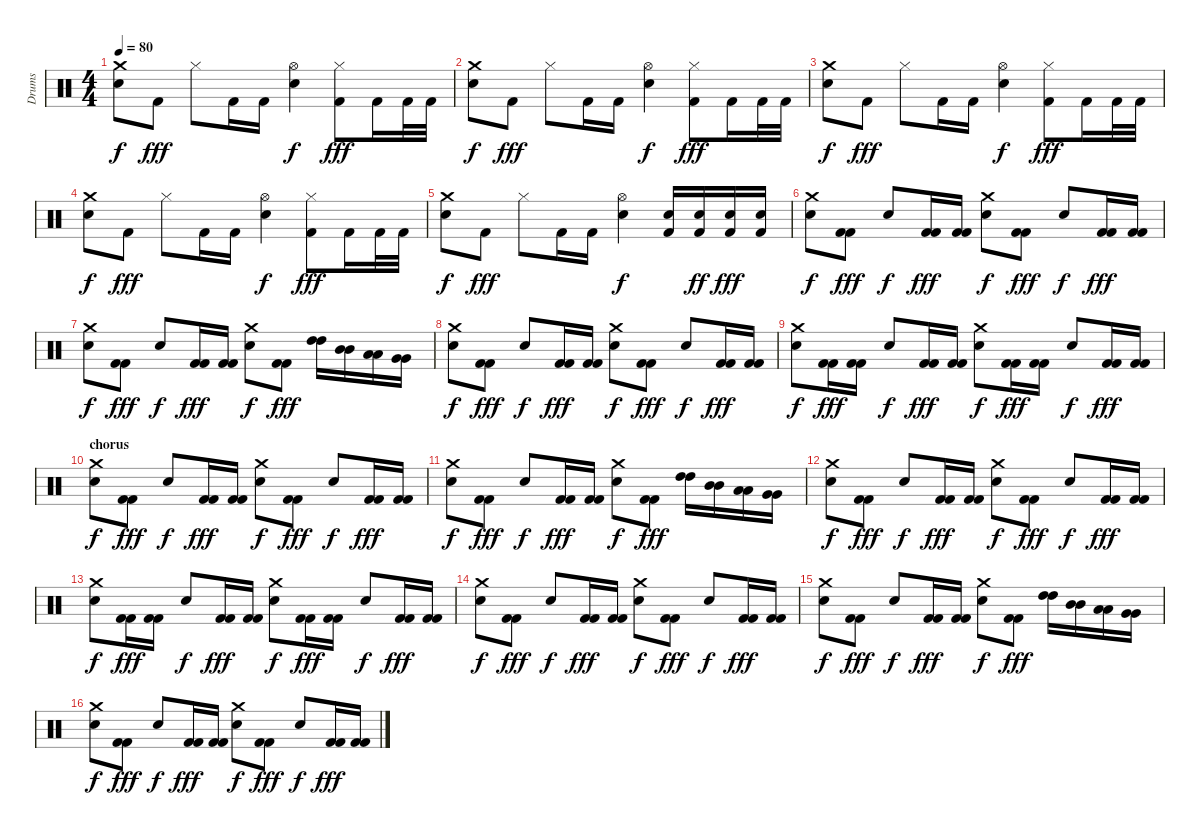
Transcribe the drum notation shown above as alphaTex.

\track ("Drums" "Drums") {instrument percussion}
\staff {score}
\articulation defaults
\ts (4 4)
\tempo 80
\clef neutral
\ks c
("Crash medium (hit)" "Electric Snare (hit)").8{dy f} "Kick (hit) 2".8{dy fff} "Hi-Hat (closed)".8 "Kick (hit) 2".16 "Kick (hit) 2".16 ("Hi-Hat (open)" "Electric Snare (hit)").4{dy f} ("Hi-Hat (closed)" "Kick (hit) 2").8{dy fff} "Kick (hit) 2".16 "Kick (hit) 2".32 "Kick (hit) 2".32 |
("Crash medium (hit)" "Electric Snare (hit)").8{dy f} "Kick (hit) 2".8{dy fff} "Hi-Hat (closed)".8 "Kick (hit) 2".16 "Kick (hit) 2".16 ("Hi-Hat (open)" "Electric Snare (hit)").4{dy f} ("Hi-Hat (closed)" "Kick (hit) 2").8{dy fff} "Kick (hit) 2".16 "Kick (hit) 2".32 "Kick (hit) 2".32 |
("Crash medium (hit)" "Electric Snare (hit)").8{dy f} "Kick (hit) 2".8{dy fff} "Hi-Hat (closed)".8 "Kick (hit) 2".16 "Kick (hit) 2".16 ("Hi-Hat (open)" "Electric Snare (hit)").4{dy f} ("Hi-Hat (closed)" "Kick (hit) 2").8{dy fff} "Kick (hit) 2".16 "Kick (hit) 2".32 "Kick (hit) 2".32 |
("Crash medium (hit)" "Electric Snare (hit)").8{dy f} "Kick (hit) 2".8{dy fff} "Hi-Hat (closed)".8 "Kick (hit) 2".16 "Kick (hit) 2".16 ("Hi-Hat (open)" "Electric Snare (hit)").4{dy f} ("Hi-Hat (closed)" "Kick (hit) 2").8{dy fff} "Kick (hit) 2".16 "Kick (hit) 2".32 "Kick (hit) 2".32 |
("Crash medium (hit)" "Electric Snare (hit)").8{dy f} "Kick (hit) 2".8{dy fff} "Hi-Hat (closed)".8 "Kick (hit) 2".16 "Kick (hit) 2".16 ("Hi-Hat (open)" "Electric Snare (hit)").4{dy f} ("Kick (hit) 2" "Electric Snare (hit)").16 ("Kick (hit) 2" "Electric Snare (hit)").16{dy ff} ("Kick (hit) 2" "Electric Snare (hit)").16{dy fff} ("Kick (hit) 2" "Electric Snare (hit)").16 |
("Electric Snare (hit)" "Crash medium (hit)").8{dy f} ("Kick (hit) 2" "Kick (hit) 2").8{dy fff} "Electric Snare (hit)".8{dy f} ("Kick (hit) 2" "Kick (hit) 2").16{dy fff} ("Kick (hit) 2" "Kick (hit) 2").16 ("Electric Snare (hit)" "Crash medium (hit)").8{dy f} ("Kick (hit) 2" "Kick (hit) 2").8{dy fff} "Electric Snare (hit)".8{dy f} ("Kick (hit) 2" "Kick (hit) 2").16{dy fff} ("Kick (hit) 2" "Kick (hit) 2").16 |
("Electric Snare (hit)" "Crash medium (hit)").8{dy f} ("Kick (hit) 2" "Kick (hit) 2").8{dy fff} "Electric Snare (hit)".8{dy f} ("Kick (hit) 2" "Kick (hit) 2").16{dy fff} ("Kick (hit) 2" "Kick (hit) 2").16 ("Electric Snare (hit)" "Crash medium (hit)").8{dy f} ("Kick (hit) 2" "Kick (hit) 2").8{dy fff} ("High Tom (hit)" "High Tom (hit)").16 ("Mid Tom (hit)" "Mid Tom (hit)").16 ("Low Tom (hit)" "Low Tom (hit)").16 ("Very Low Tom (hit)" "Very Low Tom (hit)").16 |
("Electric Snare (hit)" "Crash medium (hit)").8{dy f} ("Kick (hit) 2" "Kick (hit) 2").8{dy fff} "Electric Snare (hit)".8{dy f} ("Kick (hit) 2" "Kick (hit) 2").16{dy fff} ("Kick (hit) 2" "Kick (hit) 2").16 ("Electric Snare (hit)" "Crash medium (hit)").8{dy f} ("Kick (hit) 2" "Kick (hit) 2").8{dy fff} "Electric Snare (hit)".8{dy f} ("Kick (hit) 2" "Kick (hit) 2").16{dy fff} ("Kick (hit) 2" "Kick (hit) 2").16 |
("Electric Snare (hit)" "Crash medium (hit)").8{dy f} ("Kick (hit) 2" "Kick (hit) 2").16{dy fff} ("Kick (hit) 2" "Kick (hit) 2").16 "Electric Snare (hit)".8{dy f} ("Kick (hit) 2" "Kick (hit) 2").16{dy fff} ("Kick (hit) 2" "Kick (hit) 2").16 ("Electric Snare (hit)" "Crash medium (hit)").8{dy f} ("Kick (hit) 2" "Kick (hit) 2").16{dy fff} ("Kick (hit) 2" "Kick (hit) 2").16 "Electric Snare (hit)".8{dy f} ("Kick (hit) 2" "Kick (hit) 2").16{dy fff} ("Kick (hit) 2" "Kick (hit) 2").16 |
\section ("" "chorus")
("Electric Snare (hit)" "Crash medium (hit)").8{dy f} ("Kick (hit) 2" "Kick (hit) 2").8{dy fff} "Electric Snare (hit)".8{dy f} ("Kick (hit) 2" "Kick (hit) 2").16{dy fff} ("Kick (hit) 2" "Kick (hit) 2").16 ("Electric Snare (hit)" "Crash medium (hit)").8{dy f} ("Kick (hit) 2" "Kick (hit) 2").8{dy fff} "Electric Snare (hit)".8{dy f} ("Kick (hit) 2" "Kick (hit) 2").16{dy fff} ("Kick (hit) 2" "Kick (hit) 2").16 |
("Electric Snare (hit)" "Crash medium (hit)").8{dy f} ("Kick (hit) 2" "Kick (hit) 2").8{dy fff} "Electric Snare (hit)".8{dy f} ("Kick (hit) 2" "Kick (hit) 2").16{dy fff} ("Kick (hit) 2" "Kick (hit) 2").16 ("Electric Snare (hit)" "Crash medium (hit)").8{dy f} ("Kick (hit) 2" "Kick (hit) 2").8{dy fff} ("High Tom (hit)" "High Tom (hit)").16 ("Mid Tom (hit)" "Mid Tom (hit)").16 ("Low Tom (hit)" "Low Tom (hit)").16 ("Very Low Tom (hit)" "Very Low Tom (hit)").16 |
("Electric Snare (hit)" "Crash medium (hit)").8{dy f} ("Kick (hit) 2" "Kick (hit) 2").8{dy fff} "Electric Snare (hit)".8{dy f} ("Kick (hit) 2" "Kick (hit) 2").16{dy fff} ("Kick (hit) 2" "Kick (hit) 2").16 ("Electric Snare (hit)" "Crash medium (hit)").8{dy f} ("Kick (hit) 2" "Kick (hit) 2").8{dy fff} "Electric Snare (hit)".8{dy f} ("Kick (hit) 2" "Kick (hit) 2").16{dy fff} ("Kick (hit) 2" "Kick (hit) 2").16 |
("Electric Snare (hit)" "Crash medium (hit)").8{dy f} ("Kick (hit) 2" "Kick (hit) 2").16{dy fff} ("Kick (hit) 2" "Kick (hit) 2").16 "Electric Snare (hit)".8{dy f} ("Kick (hit) 2" "Kick (hit) 2").16{dy fff} ("Kick (hit) 2" "Kick (hit) 2").16 ("Electric Snare (hit)" "Crash medium (hit)").8{dy f} ("Kick (hit) 2" "Kick (hit) 2").16{dy fff} ("Kick (hit) 2" "Kick (hit) 2").16 "Electric Snare (hit)".8{dy f} ("Kick (hit) 2" "Kick (hit) 2").16{dy fff} ("Kick (hit) 2" "Kick (hit) 2").16 |
("Electric Snare (hit)" "Crash medium (hit)").8{dy f} ("Kick (hit) 2" "Kick (hit) 2").8{dy fff} "Electric Snare (hit)".8{dy f} ("Kick (hit) 2" "Kick (hit) 2").16{dy fff} ("Kick (hit) 2" "Kick (hit) 2").16 ("Electric Snare (hit)" "Crash medium (hit)").8{dy f} ("Kick (hit) 2" "Kick (hit) 2").8{dy fff} "Electric Snare (hit)".8{dy f} ("Kick (hit) 2" "Kick (hit) 2").16{dy fff} ("Kick (hit) 2" "Kick (hit) 2").16 |
("Electric Snare (hit)" "Crash medium (hit)").8{dy f} ("Kick (hit) 2" "Kick (hit) 2").8{dy fff} "Electric Snare (hit)".8{dy f} ("Kick (hit) 2" "Kick (hit) 2").16{dy fff} ("Kick (hit) 2" "Kick (hit) 2").16 ("Electric Snare (hit)" "Crash medium (hit)").8{dy f} ("Kick (hit) 2" "Kick (hit) 2").8{dy fff} ("High Tom (hit)" "High Tom (hit)").16 ("Mid Tom (hit)" "Mid Tom (hit)").16 ("Low Tom (hit)" "Low Tom (hit)").16 ("Very Low Tom (hit)" "Very Low Tom (hit)").16 |
("Electric Snare (hit)" "Crash medium (hit)").8{dy f} ("Kick (hit) 2" "Kick (hit) 2").8{dy fff} "Electric Snare (hit)".8{dy f} ("Kick (hit) 2" "Kick (hit) 2").16{dy fff} ("Kick (hit) 2" "Kick (hit) 2").16 ("Electric Snare (hit)" "Crash medium (hit)").8{dy f} ("Kick (hit) 2" "Kick (hit) 2").8{dy fff} "Electric Snare (hit)".8{dy f} ("Kick (hit) 2" "Kick (hit) 2").16{dy fff} ("Kick (hit) 2" "Kick (hit) 2").16
